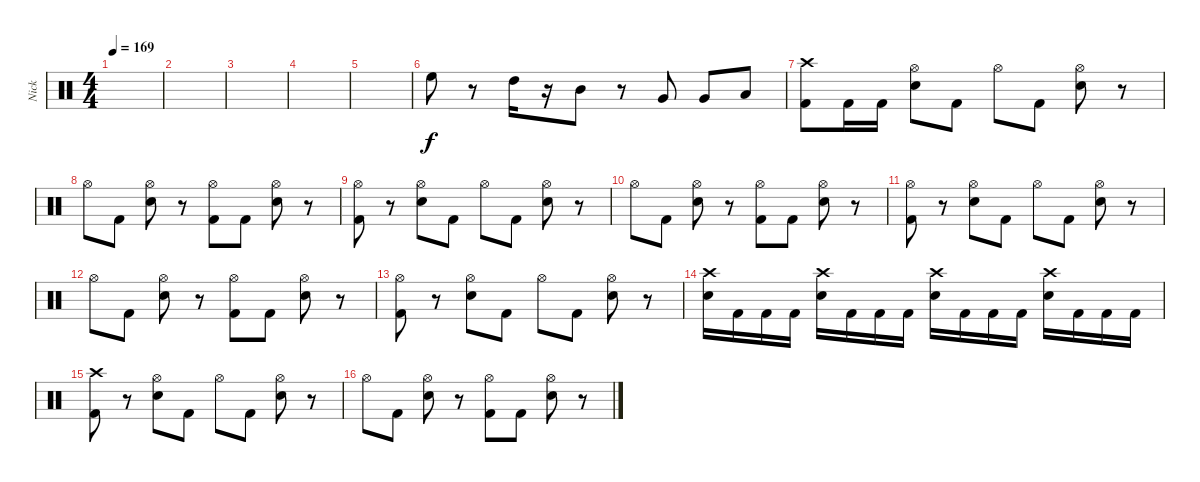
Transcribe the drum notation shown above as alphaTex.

\track ("Nick" "Nick") {instrument percussion}
\staff {score}
\articulation defaults
\ts (4 4)
\tempo 169
\clef neutral
\ks c
|
|
|
|
|
"High Floor Tom (hit)".8 r.8 "High Tom (hit)".16 r.16 "Mid Tom (hit)".8 r.8 "Very Low Tom (hit)".8 "Very Low Tom (hit)".8 "Low Floor Tom (hit)".8 |
("Crash high (hit)" "Kick (hit) 2").8 "Kick (hit) 2".16 "Kick (hit) 2".16 ("Hi-Hat (open)" "Snare (hit) 2").8 "Kick (hit) 2".8 "Hi-Hat (open)".8 "Kick (hit) 2".8 ("Hi-Hat (open)" "Snare (hit) 2").8 r.8 |
"Hi-Hat (open)".8 "Kick (hit) 2".8 ("Hi-Hat (open)" "Snare (hit) 2").8 r.8 ("Hi-Hat (open)" "Kick (hit) 2").8 "Kick (hit) 2".8 ("Hi-Hat (open)" "Snare (hit) 2").8 r.8 |
("Hi-Hat (open)" "Kick (hit) 2").8 r.8 ("Hi-Hat (open)" "Snare (hit) 2").8 "Kick (hit) 2".8 "Hi-Hat (open)".8 "Kick (hit) 2".8 ("Hi-Hat (open)" "Snare (hit) 2").8 r.8 |
"Hi-Hat (open)".8 "Kick (hit) 2".8 ("Hi-Hat (open)" "Snare (hit) 2").8 r.8 ("Hi-Hat (open)" "Kick (hit) 2").8 "Kick (hit) 2".8 ("Hi-Hat (open)" "Snare (hit) 2").8 r.8 |
("Hi-Hat (open)" "Kick (hit) 2").8 r.8 ("Hi-Hat (open)" "Snare (hit) 2").8 "Kick (hit) 2".8 "Hi-Hat (open)".8 "Kick (hit) 2".8 ("Hi-Hat (open)" "Snare (hit) 2").8 r.8 |
"Hi-Hat (open)".8 "Kick (hit) 2".8 ("Hi-Hat (open)" "Snare (hit) 2").8 r.8 ("Hi-Hat (open)" "Kick (hit) 2").8 "Kick (hit) 2".8 ("Hi-Hat (open)" "Snare (hit) 2").8 r.8 |
("Hi-Hat (open)" "Kick (hit) 2").8 r.8 ("Hi-Hat (open)" "Snare (hit) 2").8 "Kick (hit) 2".8 "Hi-Hat (open)".8 "Kick (hit) 2".8 ("Hi-Hat (open)" "Snare (hit) 2").8 r.8 |
("Crash high (hit)" "Snare (hit) 2").16 "Kick (hit) 2".16 "Kick (hit) 2".16 "Kick (hit) 2".16 ("Crash high (hit)" "Snare (hit) 2").16 "Kick (hit) 2".16 "Kick (hit) 2".16 "Kick (hit) 2".16 ("Crash high (hit)" "Snare (hit) 2").16 "Kick (hit) 2".16 "Kick (hit) 2".16 "Kick (hit) 2".16 ("Crash high (hit)" "Snare (hit) 2").16 "Kick (hit) 2".16 "Kick (hit) 2".16 "Kick (hit) 2".16 |
("Crash high (hit)" "Kick (hit) 2").8 r.8 ("Hi-Hat (open)" "Snare (hit) 2").8 "Kick (hit) 2".8 "Hi-Hat (open)".8 "Kick (hit) 2".8 ("Hi-Hat (open)" "Snare (hit) 2").8 r.8 |
"Hi-Hat (open)".8 "Kick (hit) 2".8 ("Hi-Hat (open)" "Snare (hit) 2").8 r.8 ("Hi-Hat (open)" "Kick (hit) 2").8 "Kick (hit) 2".8 ("Hi-Hat (open)" "Snare (hit) 2").8 r.8
